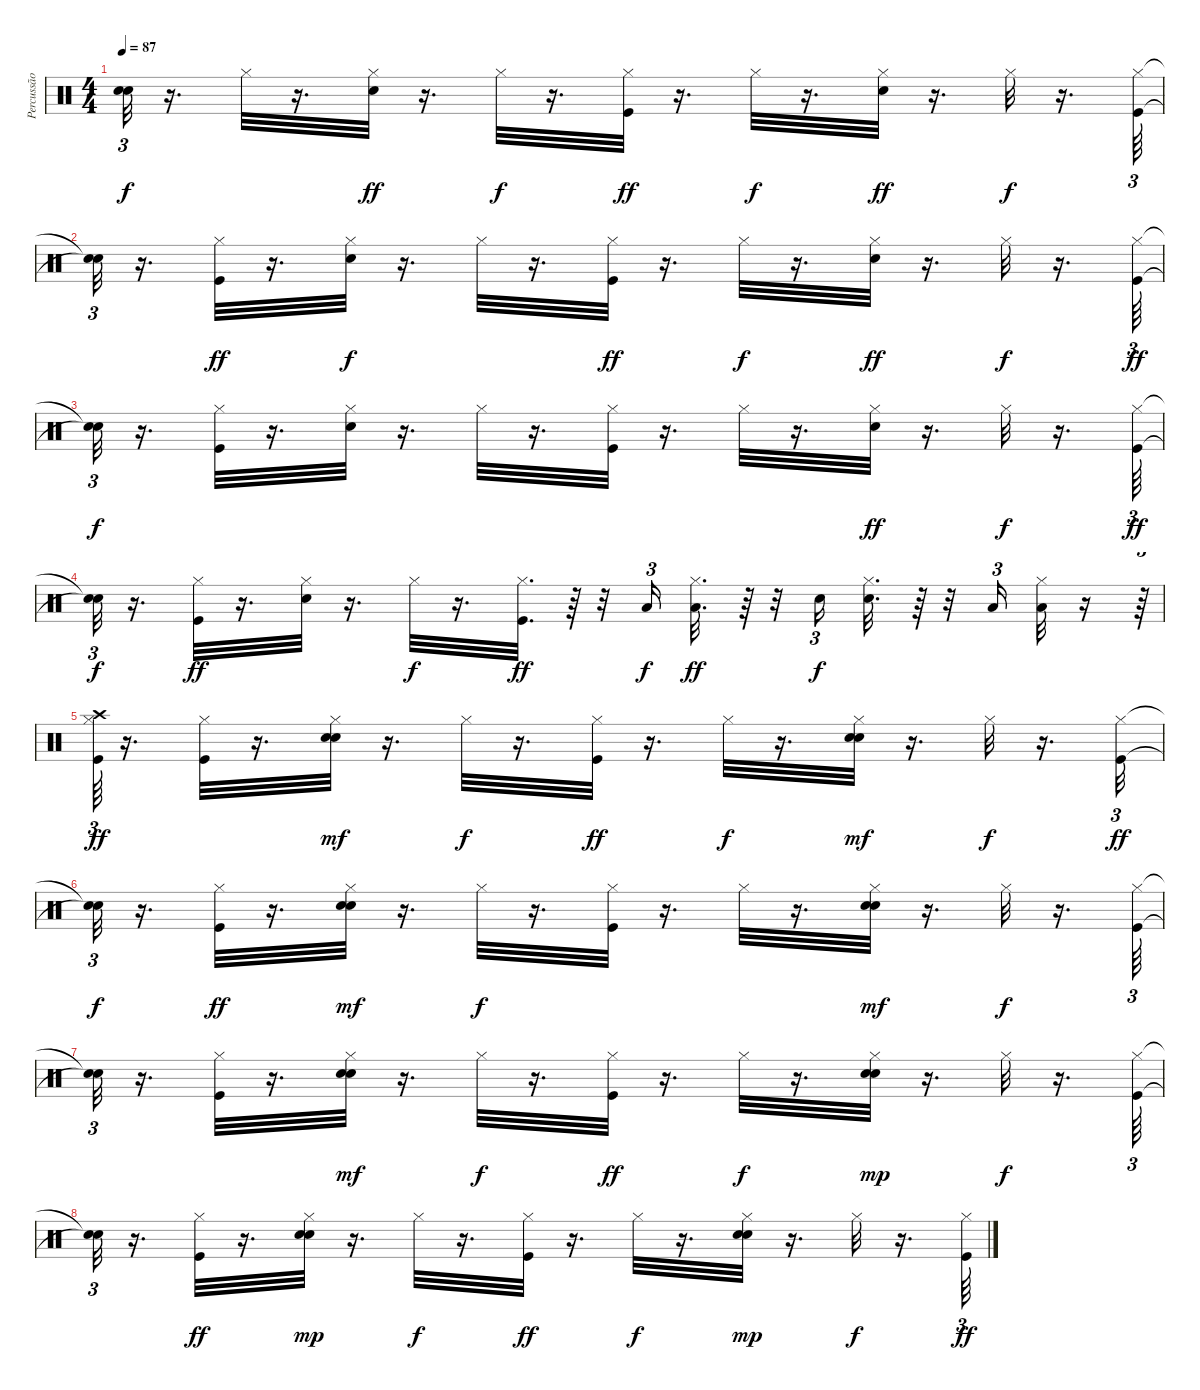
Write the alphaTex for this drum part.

\track ("Percussão" "Percussão") {instrument percussion}
\staff {score}
\articulation defaults
\ts (4 4)
\tempo 87
\clef neutral
\ks c
("Snare (hit)"{t} "Snare (hit)"{t}).32{tu (3 2) dy f} r.16{d} "Hi-Hat (closed)".32 r.16{d} ("Electric Snare (hit)" "Hi-Hat (closed)").32{dy ff} r.16{d} "Hi-Hat (closed)".32{dy f} r.16{d} ("Kick (hit)" "Hi-Hat (closed)").32{dy ff} r.16{d} "Hi-Hat (closed)".32{dy f} r.16{d} ("Electric Snare (hit)" "Hi-Hat (closed)").32{dy ff} r.16{d} "Hi-Hat (closed)".32{dy f} r.16{d} ("Kick (hit)" "Hi-Hat (closed)").64{tu (3 2)} |
("Snare (hit)"{t} "Snare (hit)"{t}).32{tu (3 2)} r.16{d} ("Kick (hit)" "Hi-Hat (closed)").32{dy ff} r.16{d} ("Electric Snare (hit)" "Hi-Hat (closed)").32{dy f} r.16{d} "Hi-Hat (closed)".32 r.16{d} ("Kick (hit)" "Hi-Hat (closed)").32{dy ff} r.16{d} "Hi-Hat (closed)".32{dy f} r.16{d} ("Electric Snare (hit)" "Hi-Hat (closed)").32{dy ff} r.16{d} "Hi-Hat (closed)".32{dy f} r.16{d} ("Kick (hit)" "Hi-Hat (closed)").64{tu (3 2) dy ff} |
("Snare (hit)"{t} "Snare (hit)"{t}).32{tu (3 2) dy f} r.16{d} ("Kick (hit)" "Hi-Hat (closed)").32 r.16{d} ("Electric Snare (hit)" "Hi-Hat (closed)").32 r.16{d} "Hi-Hat (closed)".32 r.16{d} ("Kick (hit)" "Hi-Hat (closed)").32 r.16{d} "Hi-Hat (closed)".32 r.16{d} ("Electric Snare (hit)" "Hi-Hat (closed)").32{dy ff} r.16{d} "Hi-Hat (closed)".32{dy f} r.16{d} ("Kick (hit)" "Hi-Hat (closed)").64{tu (3 2) dy ff} |
("Snare (hit)"{t} "Snare (hit)"{t}).32{tu (3 2) dy f} r.16{d} ("Kick (hit)" "Hi-Hat (closed)").32{dy ff} r.16{d} ("Electric Snare (hit)" "Hi-Hat (closed)").32 r.16{d} "Hi-Hat (closed)".32{dy f} r.16{d} ("Kick (hit)" "Hi-Hat (closed)").32{d dy ff} r.64 r.32 "Low Tom (hit)".16{tu (3 2) dy f} ("Hi-Hat (closed)" "Low Tom (hit)").32{d dy ff} r.64 r.32 "Electric Snare (hit)".16{tu (3 2) dy f} ("Electric Snare (hit)" "Hi-Hat (closed)").32{d} r.64 r.32 "Low Tom (hit)".16{tu (3 2)} ("Hi-Hat (closed)" "Low Tom (hit)").32 r.16 r.64{tu (3 2)} |
("Kick (hit)" "Hi-Hat (closed)" "Crash high (hit)").64{tu (3 2) dy ff} r.16{d} ("Kick (hit)" "Hi-Hat (closed)").32 r.16{d} ("Electric Snare (hit)" "Hi-Hat (closed)" "Hand Clap (hit)").32{dy mf} r.16{d} "Hi-Hat (closed)".32{dy f} r.16{d} ("Kick (hit)" "Hi-Hat (closed)").32{dy ff} r.16{d} "Hi-Hat (closed)".32{dy f} r.16{d} ("Electric Snare (hit)" "Hi-Hat (closed)" "Hand Clap (hit)").32{dy mf} r.16{d} "Hi-Hat (closed)".32{dy f} r.16{d} ("Kick (hit)" "Hi-Hat (closed)").32{tu (3 2) dy ff} |
("Snare (hit)"{t} "Snare (hit)"{t}).32{tu (3 2) dy f} r.16{d} ("Kick (hit)" "Hi-Hat (closed)").32{dy ff} r.16{d} ("Electric Snare (hit)" "Hi-Hat (closed)" "Hand Clap (hit)").32{dy mf} r.16{d} "Hi-Hat (closed)".32{dy f} r.16{d} ("Kick (hit)" "Hi-Hat (closed)").32 r.16{d} "Hi-Hat (closed)".32 r.16{d} ("Electric Snare (hit)" "Hi-Hat (closed)" "Hand Clap (hit)").32{dy mf} r.16{d} "Hi-Hat (closed)".32{dy f} r.16{d} ("Kick (hit)" "Hi-Hat (closed)").64{tu (3 2)} |
("Snare (hit)"{t} "Snare (hit)"{t}).32{tu (3 2)} r.16{d} ("Kick (hit)" "Hi-Hat (closed)").32 r.16{d} ("Electric Snare (hit)" "Hi-Hat (closed)" "Hand Clap (hit)").32{dy mf} r.16{d} "Hi-Hat (closed)".32{dy f} r.16{d} ("Kick (hit)" "Hi-Hat (closed)").32{dy ff} r.16{d} "Hi-Hat (closed)".32{dy f} r.16{d} ("Electric Snare (hit)" "Hi-Hat (closed)" "Hand Clap (hit)").32{dy mp} r.16{d} "Hi-Hat (closed)".32{dy f} r.16{d} ("Kick (hit)" "Hi-Hat (closed)").64{tu (3 2)} |
("Snare (hit)"{t} "Snare (hit)"{t}).32{tu (3 2)} r.16{d} ("Kick (hit)" "Hi-Hat (closed)").32{dy ff} r.16{d} ("Electric Snare (hit)" "Hi-Hat (closed)" "Hand Clap (hit)").32{dy mp} r.16{d} "Hi-Hat (closed)".32{dy f} r.16{d} ("Kick (hit)" "Hi-Hat (closed)").32{dy ff} r.16{d} "Hi-Hat (closed)".32{dy f} r.16{d} ("Electric Snare (hit)" "Hi-Hat (closed)" "Hand Clap (hit)").32{dy mp} r.16{d} "Hi-Hat (closed)".32{dy f} r.16{d} ("Kick (hit)" "Hi-Hat (closed)").64{tu (3 2) dy ff}
